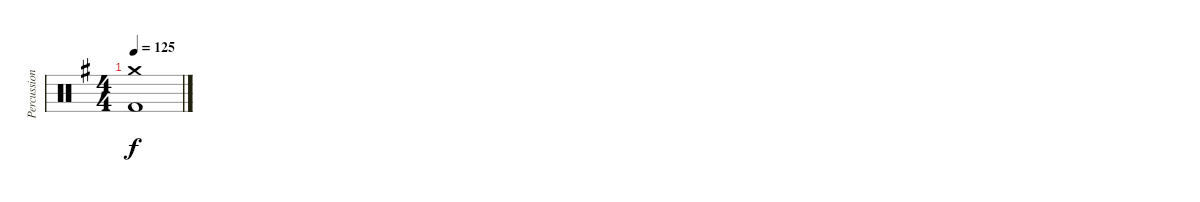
\track ("Percussion" "Percussion") {instrument percussion}
\staff {score}
\articulation defaults
\ts (4 4)
\tempo 125
\clef neutral
\ks eminor
("Crash medium (hit)" "Kick (hit) 2").1{dy f}
